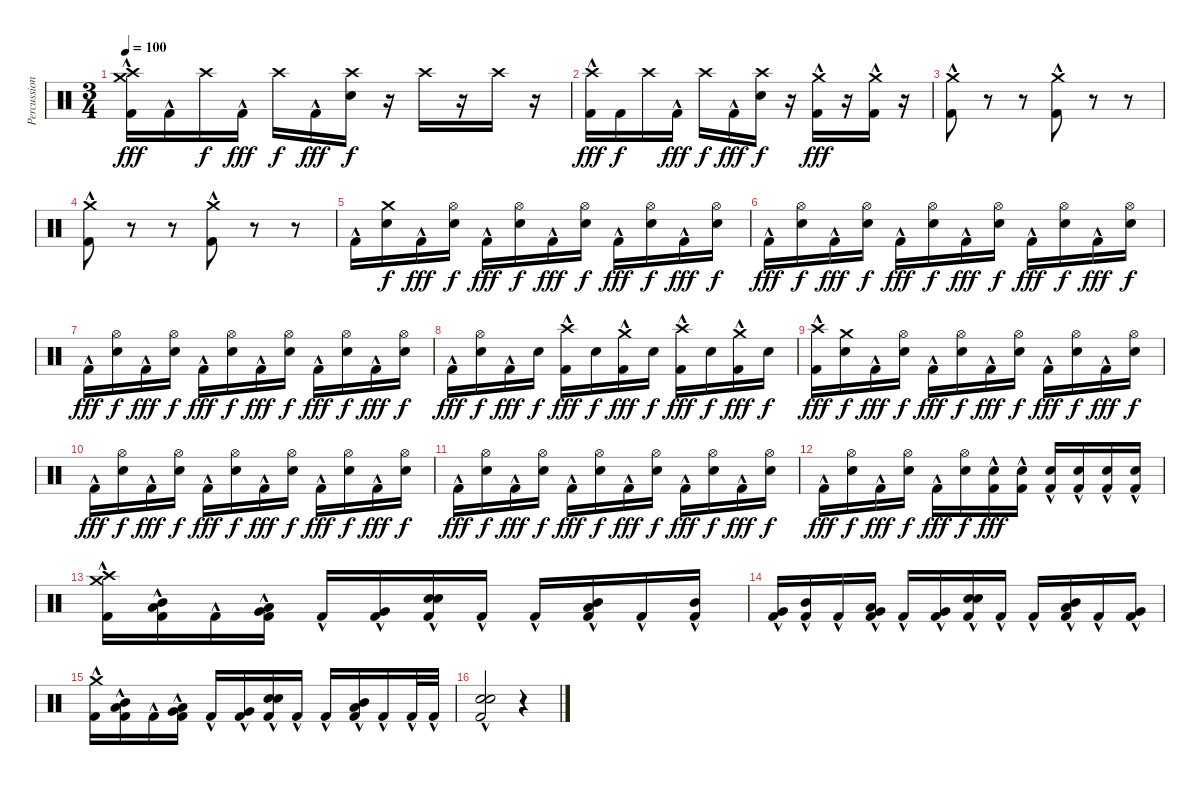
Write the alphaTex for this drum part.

\track ("Percussion" "Percussion") {instrument percussion}
\staff {score}
\articulation defaults
\ts (3 4)
\tempo 100
\clef neutral
\ks c
("Kick (hit) 2"{hac} "Crash high (hit)" "Crash medium (hit)").16{dy fff} "Kick (hit) 2"{hac}.16 "Crash high (hit)".16{dy f} "Kick (hit) 2"{hac}.16{dy fff} "Crash high (hit)".16{dy f} "Kick (hit) 2"{hac}.16{dy fff} ("Electric Snare (hit)" "Crash high (hit)").16{dy f} r.16 "Crash high (hit)".16 r.16 "Crash high (hit)".16 r.16 |
("Kick (hit) 2"{hac} "Crash high (hit)").16{dy fff} "Kick (hit) 2".16{dy f} "Crash high (hit)".16 "Kick (hit) 2"{hac}.16{dy fff} "Crash high (hit)".16{dy f} "Kick (hit) 2"{hac}.16{dy fff} ("Electric Snare (hit)" "Crash high (hit)").16{dy f} r.16 ("Kick (hit) 2"{hac} "Crash medium (hit)").16{dy fff} r.16 ("Kick (hit) 2"{hac} "Crash medium (hit)").16 r.16 |
("Kick (hit) 2"{hac} "Crash medium (hit)").8 r.8{volume 0} r.8 ("Kick (hit) 2"{hac} "Crash medium (hit)").8{volume 8} r.8{volume 0} r.8 |
("Kick (hit) 2"{hac} "Crash medium (hit)").8{volume 8} r.8{volume 0} r.8 ("Kick (hit) 2"{hac} "Crash medium (hit)").8{volume 8} r.8 r.8 |
"Kick (hit) 2"{hac}.16 ("Electric Snare (hit)" "Crash medium (hit)").16{dy f} "Kick (hit) 2"{hac}.16{dy fff} ("Electric Snare (hit)" "Hi-Hat (open)").16{dy f} "Kick (hit) 2"{hac}.16{dy fff} ("Electric Snare (hit)" "Hi-Hat (open)").16{dy f} "Kick (hit) 2"{hac}.16{dy fff} ("Electric Snare (hit)" "Hi-Hat (open)").16{dy f} "Kick (hit) 2"{hac}.16{dy fff} ("Electric Snare (hit)" "Hi-Hat (open)").16{dy f} "Kick (hit) 2"{hac}.16{dy fff} ("Electric Snare (hit)" "Hi-Hat (open)").16{dy f} |
"Kick (hit) 2"{hac}.16{dy fff} ("Electric Snare (hit)" "Hi-Hat (open)").16{dy f} "Kick (hit) 2"{hac}.16{dy fff} ("Electric Snare (hit)" "Hi-Hat (open)").16{dy f} "Kick (hit) 2"{hac}.16{dy fff} ("Electric Snare (hit)" "Hi-Hat (open)").16{dy f} "Kick (hit) 2"{hac}.16{dy fff} ("Electric Snare (hit)" "Hi-Hat (open)").16{dy f} "Kick (hit) 2"{hac}.16{dy fff} ("Electric Snare (hit)" "Hi-Hat (open)").16{dy f} "Kick (hit) 2"{hac}.16{dy fff} ("Electric Snare (hit)" "Hi-Hat (open)").16{dy f} |
"Kick (hit) 2"{hac}.16{dy fff} ("Electric Snare (hit)" "Hi-Hat (open)").16{dy f} "Kick (hit) 2"{hac}.16{dy fff} ("Electric Snare (hit)" "Hi-Hat (open)").16{dy f} "Kick (hit) 2"{hac}.16{dy fff} ("Electric Snare (hit)" "Hi-Hat (open)").16{dy f} "Kick (hit) 2"{hac}.16{dy fff} ("Electric Snare (hit)" "Hi-Hat (open)").16{dy f} "Kick (hit) 2"{hac}.16{dy fff} ("Electric Snare (hit)" "Hi-Hat (open)").16{dy f} "Kick (hit) 2"{hac}.16{dy fff} ("Electric Snare (hit)" "Hi-Hat (open)").16{dy f} |
"Kick (hit) 2"{hac}.16{dy fff} ("Electric Snare (hit)" "Hi-Hat (open)").16{dy f} "Kick (hit) 2"{hac}.16{dy fff} "Electric Snare (hit)".16{dy f} ("Kick (hit) 2"{hac} "Crash high (hit)").16{dy fff} "Electric Snare (hit)".16{dy f} ("Kick (hit) 2"{hac} "Crash medium (hit)").16{dy fff} "Electric Snare (hit)".16{dy f} ("Kick (hit) 2"{hac} "Crash high (hit)").16{dy fff} "Electric Snare (hit)".16{dy f} ("Kick (hit) 2"{hac} "Crash medium (hit)").16{dy fff} "Electric Snare (hit)".16{dy f} |
("Kick (hit) 2"{hac} "Crash high (hit)").16{dy fff} ("Electric Snare (hit)" "Crash medium (hit)").16{dy f} "Kick (hit) 2"{hac}.16{dy fff} ("Electric Snare (hit)" "Hi-Hat (open)").16{dy f} "Kick (hit) 2"{hac}.16{dy fff} ("Electric Snare (hit)" "Hi-Hat (open)").16{dy f} "Kick (hit) 2"{hac}.16{dy fff} ("Electric Snare (hit)" "Hi-Hat (open)").16{dy f} "Kick (hit) 2"{hac}.16{dy fff} ("Electric Snare (hit)" "Hi-Hat (open)").16{dy f} "Kick (hit) 2"{hac}.16{dy fff} ("Electric Snare (hit)" "Hi-Hat (open)").16{dy f} |
"Kick (hit) 2"{hac}.16{dy fff} ("Electric Snare (hit)" "Hi-Hat (open)").16{dy f} "Kick (hit) 2"{hac}.16{dy fff} ("Electric Snare (hit)" "Hi-Hat (open)").16{dy f} "Kick (hit) 2"{hac}.16{dy fff} ("Electric Snare (hit)" "Hi-Hat (open)").16{dy f} "Kick (hit) 2"{hac}.16{dy fff} ("Electric Snare (hit)" "Hi-Hat (open)").16{dy f} "Kick (hit) 2"{hac}.16{dy fff} ("Electric Snare (hit)" "Hi-Hat (open)").16{dy f} "Kick (hit) 2"{hac}.16{dy fff} ("Electric Snare (hit)" "Hi-Hat (open)").16{dy f} |
"Kick (hit) 2"{hac}.16{dy fff} ("Electric Snare (hit)" "Hi-Hat (open)").16{dy f} "Kick (hit) 2"{hac}.16{dy fff} ("Electric Snare (hit)" "Hi-Hat (open)").16{dy f} "Kick (hit) 2"{hac}.16{dy fff} ("Electric Snare (hit)" "Hi-Hat (open)").16{dy f} "Kick (hit) 2"{hac}.16{dy fff} ("Electric Snare (hit)" "Hi-Hat (open)").16{dy f} "Kick (hit) 2"{hac}.16{dy fff} ("Electric Snare (hit)" "Hi-Hat (open)").16{dy f} "Kick (hit) 2"{hac}.16{dy fff} ("Electric Snare (hit)" "Hi-Hat (open)").16{dy f} |
"Kick (hit) 2"{hac}.16{dy fff} ("Electric Snare (hit)" "Hi-Hat (open)").16{dy f} "Kick (hit) 2"{hac}.16{dy fff} ("Electric Snare (hit)" "Hi-Hat (open)").16{dy f} "Kick (hit) 2"{hac}.16{dy fff} ("Electric Snare (hit)" "Hi-Hat (open)").16{dy f} ("Kick (hit) 2"{hac} "Electric Snare (hit)").16{dy fff} ("Kick (hit) 2"{hac} "Electric Snare (hit)").16 ("Kick (hit) 2"{hac} "Electric Snare (hit)").16 ("Kick (hit) 2"{hac} "Electric Snare (hit)").16 ("Kick (hit) 2"{hac} "Electric Snare (hit)").16 ("Kick (hit) 2"{hac} "Electric Snare (hit)").16 |
("Kick (hit) 2"{hac} "Crash medium (hit)" "Crash high (hit)").16 ("Kick (hit) 2"{hac} "Low Tom (hit)" "Mid Tom (hit)").16 "Kick (hit) 2"{hac}.16 ("Kick (hit) 2"{hac} "Very Low Tom (hit)" "Low Tom (hit)").16 "Kick (hit) 2"{hac}.16 ("Kick (hit) 2"{hac} "Very Low Tom (hit)").16 ("Kick (hit) 2"{hac} "Electric Snare (hit)" "Electric Snare (hit)").16 "Kick (hit) 2"{hac}.16 "Kick (hit) 2"{hac}.16 ("Kick (hit) 2"{hac} "Low Tom (hit)" "Mid Tom (hit)").16 "Kick (hit) 2"{hac}.16 ("Kick (hit) 2"{hac} "Mid Tom (hit)").16 |
("Kick (hit) 2"{hac} "Very Low Tom (hit)").16 ("Kick (hit) 2"{hac} "Mid Tom (hit)").16 "Kick (hit) 2"{hac}.16 ("Kick (hit) 2"{hac} "Very Low Tom (hit)" "Low Tom (hit)").16 "Kick (hit) 2"{hac}.16 ("Kick (hit) 2"{hac} "Very Low Tom (hit)").16 ("Kick (hit) 2"{hac} "Electric Snare (hit)" "Electric Snare (hit)").16 "Kick (hit) 2"{hac}.16 "Kick (hit) 2"{hac}.16 ("Kick (hit) 2"{hac} "Low Tom (hit)" "Mid Tom (hit)").16 "Kick (hit) 2"{hac}.16 ("Kick (hit) 2"{hac} "Very Low Tom (hit)").16 |
("Kick (hit) 2"{hac} "Crash medium (hit)").16 ("Kick (hit) 2"{hac} "Low Tom (hit)" "Mid Tom (hit)").16 "Kick (hit) 2"{hac}.16 ("Kick (hit) 2"{hac} "Very Low Tom (hit)" "Low Tom (hit)").16 "Kick (hit) 2"{hac}.16 ("Kick (hit) 2"{hac} "Very Low Tom (hit)").16 ("Kick (hit) 2"{hac} "Electric Snare (hit)" "Electric Snare (hit)").16 "Kick (hit) 2"{hac}.16 "Kick (hit) 2"{hac}.16 ("Kick (hit) 2"{hac} "Low Tom (hit)" "Mid Tom (hit)").16 "Kick (hit) 2"{hac}.16 "Kick (hit) 2"{hac}.32 "Kick (hit) 2"{hac}.32 |
("Kick (hit) 2"{hac} "Electric Snare (hit)" "Electric Snare (hit)").2 r.4
